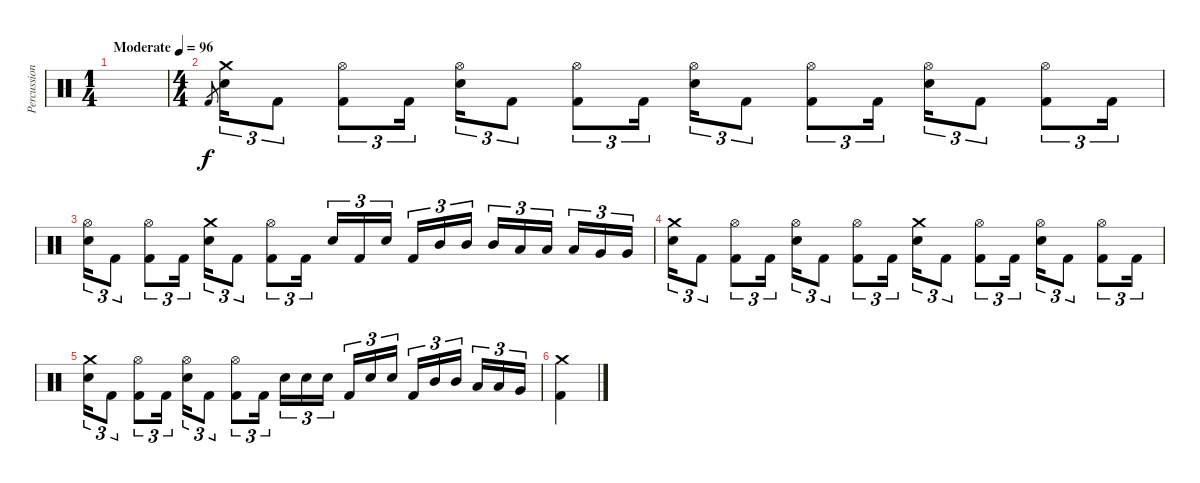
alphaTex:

\track ("Percussion" "Percussion") {instrument percussion}
\staff {score}
\articulation defaults
\ts (1 4)
\tempo (96 "Moderate")
\clef neutral
\ks c
|
\ts (4 4)
"Kick (hit) 2".8{gr} ("Crash medium (hit)" "Electric Snare (hit)").16{tu (3 2)} "Kick (hit) 2".8{tu (3 2)} ("Hi-Hat (open)" "Kick (hit) 2").8{tu (3 2)} "Kick (hit) 2".16{tu (3 2)} ("Hi-Hat (open)" "Electric Snare (hit)").16{tu (3 2)} "Kick (hit) 2".8{tu (3 2)} ("Hi-Hat (open)" "Kick (hit) 2").8{tu (3 2)} "Kick (hit) 2".16{tu (3 2)} ("Hi-Hat (open)" "Electric Snare (hit)").16{tu (3 2)} "Kick (hit) 2".8{tu (3 2)} ("Hi-Hat (open)" "Kick (hit) 2").8{tu (3 2)} "Kick (hit) 2".16{tu (3 2)} ("Hi-Hat (open)" "Electric Snare (hit)").16{tu (3 2)} "Kick (hit) 2".8{tu (3 2)} ("Hi-Hat (open)" "Kick (hit) 2").8{tu (3 2)} "Kick (hit) 2".16{tu (3 2)} |
("Hi-Hat (open)" "Electric Snare (hit)").16{tu (3 2)} "Kick (hit) 2".8{tu (3 2)} ("Hi-Hat (open)" "Kick (hit) 2").8{tu (3 2)} "Kick (hit) 2".16{tu (3 2)} ("Crash medium (hit)" "Electric Snare (hit)").16{tu (3 2)} "Kick (hit) 2".8{tu (3 2)} ("Hi-Hat (open)" "Kick (hit) 2").8{tu (3 2)} "Kick (hit) 2".16{tu (3 2)} "Electric Snare (hit)".16{tu (3 2)} "Kick (hit) 2".16{tu (3 2)} "Electric Snare (hit)".16{tu (3 2) beam splitsecondary} "Kick (hit) 2".16{tu (3 2)} "Mid Tom (hit)".16{tu (3 2)} "Mid Tom (hit)".16{tu (3 2)} "Mid Tom (hit)".16{tu (3 2)} "Low Tom (hit)".16{tu (3 2)} "Low Tom (hit)".16{tu (3 2) beam splitsecondary} "Low Tom (hit)".16{tu (3 2)} "Very Low Tom (hit)".16{tu (3 2)} "Very Low Tom (hit)".16{tu (3 2)} |
("Crash medium (hit)" "Electric Snare (hit)").16{tu (3 2)} "Kick (hit) 2".8{tu (3 2)} ("Hi-Hat (open)" "Kick (hit) 2").8{tu (3 2)} "Kick (hit) 2".16{tu (3 2)} ("Hi-Hat (open)" "Electric Snare (hit)").16{tu (3 2)} "Kick (hit) 2".8{tu (3 2)} ("Hi-Hat (open)" "Kick (hit) 2").8{tu (3 2)} "Kick (hit) 2".16{tu (3 2)} ("Crash medium (hit)" "Electric Snare (hit)").16{tu (3 2)} "Kick (hit) 2".8{tu (3 2)} ("Hi-Hat (open)" "Kick (hit) 2").8{tu (3 2)} "Kick (hit) 2".16{tu (3 2)} ("Hi-Hat (open)" "Electric Snare (hit)").16{tu (3 2)} "Kick (hit) 2".8{tu (3 2)} ("Hi-Hat (open)" "Kick (hit) 2").8{tu (3 2)} "Kick (hit) 2".16{tu (3 2)} |
("Crash medium (hit)" "Electric Snare (hit)").16{tu (3 2)} "Kick (hit) 2".8{tu (3 2)} ("Hi-Hat (open)" "Kick (hit) 2").8{tu (3 2)} "Kick (hit) 2".16{tu (3 2)} ("Hi-Hat (open)" "Electric Snare (hit)").16{tu (3 2)} "Kick (hit) 2".8{tu (3 2)} ("Hi-Hat (open)" "Kick (hit) 2").8{tu (3 2)} "Kick (hit) 2".16{tu (3 2)} "Electric Snare (hit)".16{tu (3 2)} "Electric Snare (hit)".16{tu (3 2)} "Electric Snare (hit)".16{tu (3 2) beam splitsecondary} "Kick (hit) 2".16{tu (3 2)} "Electric Snare (hit)".16{tu (3 2)} "Electric Snare (hit)".16{tu (3 2)} "Kick (hit) 2".16{tu (3 2)} "Mid Tom (hit)".16{tu (3 2)} "Mid Tom (hit)".16{tu (3 2) beam splitsecondary} "Low Tom (hit)".16{tu (3 2)} "Low Tom (hit)".16{tu (3 2)} "Very Low Tom (hit)".16{tu (3 2)} |
("Crash medium (hit)" "Kick (hit) 2").4
